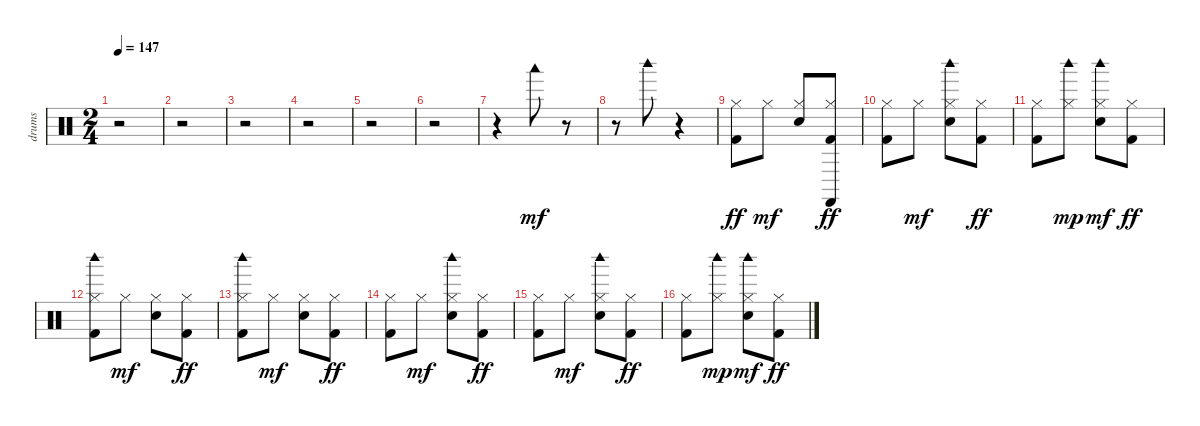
\track ("drums" "drums") {instrument percussion}
\staff {score}
\articulation defaults
\ts (2 4)
\tempo 147
\clef neutral
\ks c
r.2{dy mf} |
r.2 |
r.2 |
r.2 |
r.2 |
r.2 |
r.4 "Woodblock low (hit)".8 r.8 |
r.8 "Woodblock high (hit)".8 r.4 |
("Hi-Hat (closed)" "Kick (hit) 2").8{dy ff} "Hi-Hat (closed)".8{dy mf} ("Hi-Hat (closed)" "Electric Snare (hit)").8 ("Hi-Hat (closed)" "Castanets (hit)" "Kick (hit) 2").8{dy ff} |
("Hi-Hat (closed)" "Kick (hit) 2").8 "Hi-Hat (closed)".8{dy mf} ("Hi-Hat (closed)" "Woodblock high (hit)" "Electric Snare (hit)").8 ("Hi-Hat (closed)" "Kick (hit) 2").8{dy ff} |
("Hi-Hat (closed)" "Kick (hit) 2").8 ("Hi-Hat (closed)" "Woodblock high (hit)").8{dy mp} ("Hi-Hat (closed)" "Woodblock high (hit)" "Electric Snare (hit)").8{dy mf} ("Hi-Hat (closed)" "Kick (hit) 2").8{dy ff} |
("Hi-Hat (closed)" "Woodblock high (hit)" "Kick (hit) 2").8 "Hi-Hat (closed)".8{dy mf} ("Hi-Hat (closed)" "Electric Snare (hit)").8 ("Hi-Hat (closed)" "Kick (hit) 2").8{dy ff} |
("Hi-Hat (closed)" "Woodblock high (hit)" "Kick (hit) 2").8 "Hi-Hat (closed)".8{dy mf} ("Hi-Hat (closed)" "Electric Snare (hit)").8 ("Hi-Hat (closed)" "Kick (hit) 2").8{dy ff} |
("Hi-Hat (closed)" "Kick (hit) 2").8 "Hi-Hat (closed)".8{dy mf} ("Hi-Hat (closed)" "Woodblock high (hit)" "Electric Snare (hit)").8 ("Hi-Hat (closed)" "Kick (hit) 2").8{dy ff} |
("Hi-Hat (closed)" "Kick (hit) 2").8 "Hi-Hat (closed)".8{dy mf} ("Hi-Hat (closed)" "Woodblock high (hit)" "Electric Snare (hit)").8 ("Hi-Hat (closed)" "Kick (hit) 2").8{dy ff} |
("Hi-Hat (closed)" "Kick (hit) 2").8 ("Hi-Hat (closed)" "Woodblock high (hit)").8{dy mp} ("Hi-Hat (closed)" "Woodblock high (hit)" "Electric Snare (hit)").8{dy mf} ("Hi-Hat (closed)" "Kick (hit) 2").8{dy ff}
